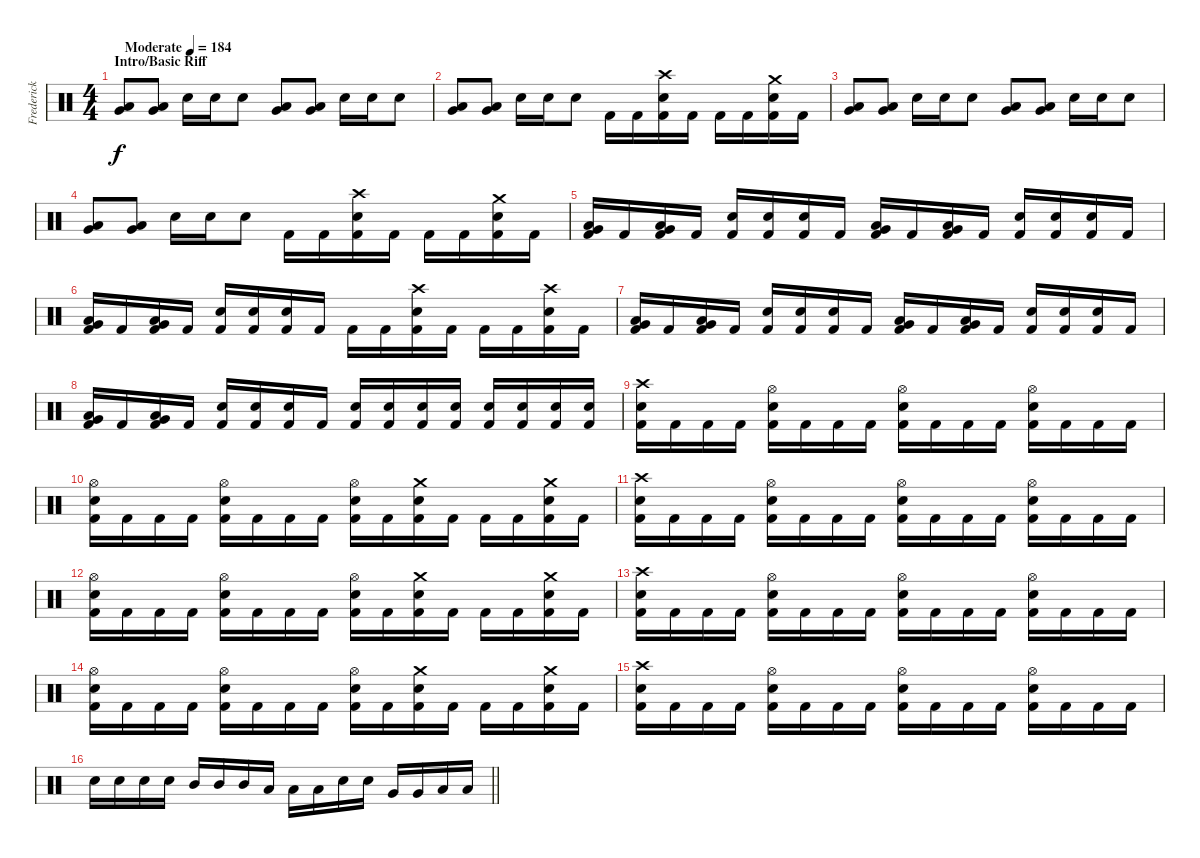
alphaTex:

\track ("Frederick Ehmke" "Frederick ") {instrument percussion}
\staff {score}
\articulation defaults
\ts (4 4)
\section ("" "Intro/Basic Riff")
\tempo (184 "Moderate")
\clef neutral
\ks c
("Low Floor Tom (hit)" "Very Low Tom (hit)").8{dy f} ("Low Floor Tom (hit)" "Very Low Tom (hit)").8 "Electric Snare (hit)".16 "Electric Snare (hit)".16 "Electric Snare (hit)".8 ("Low Floor Tom (hit)" "Very Low Tom (hit)").8 ("Low Floor Tom (hit)" "Very Low Tom (hit)").8 "Electric Snare (hit)".16 "Electric Snare (hit)".16 "Electric Snare (hit)".8 |
("Low Floor Tom (hit)" "Very Low Tom (hit)").8 ("Low Floor Tom (hit)" "Very Low Tom (hit)").8 "Electric Snare (hit)".16 "Electric Snare (hit)".16 "Electric Snare (hit)".8 "Kick (hit) 2".16 "Kick (hit) 2".16 ("Electric Snare (hit)" "Kick (hit) 2" "Crash high (hit)").16 "Kick (hit) 2".16 "Kick (hit) 2".16 "Kick (hit) 2".16 ("Electric Snare (hit)" "Kick (hit) 2" "Crash medium (hit)").16 "Kick (hit) 2".16 |
("Low Floor Tom (hit)" "Very Low Tom (hit)").8 ("Low Floor Tom (hit)" "Very Low Tom (hit)").8 "Electric Snare (hit)".16 "Electric Snare (hit)".16 "Electric Snare (hit)".8 ("Low Floor Tom (hit)" "Very Low Tom (hit)").8 ("Low Floor Tom (hit)" "Very Low Tom (hit)").8 "Electric Snare (hit)".16 "Electric Snare (hit)".16 "Electric Snare (hit)".8 |
("Low Floor Tom (hit)" "Very Low Tom (hit)").8 ("Low Floor Tom (hit)" "Very Low Tom (hit)").8 "Electric Snare (hit)".16 "Electric Snare (hit)".16 "Electric Snare (hit)".8 "Kick (hit) 2".16 "Kick (hit) 2".16 ("Electric Snare (hit)" "Kick (hit) 2" "Crash high (hit)").16 "Kick (hit) 2".16 "Kick (hit) 2".16 "Kick (hit) 2".16 ("Electric Snare (hit)" "Kick (hit) 2" "Crash medium (hit)").16 "Kick (hit) 2".16 |
("Kick (hit) 2" "Low Floor Tom (hit)" "Very Low Tom (hit)").16 "Kick (hit) 2".16 ("Kick (hit) 2" "Low Floor Tom (hit)" "Very Low Tom (hit)").16 "Kick (hit) 2".16 ("Electric Snare (hit)" "Kick (hit) 2").16 ("Electric Snare (hit)" "Kick (hit) 2").16 ("Electric Snare (hit)" "Kick (hit) 2").16 "Kick (hit) 2".16 ("Kick (hit) 2" "Low Floor Tom (hit)" "Very Low Tom (hit)").16 "Kick (hit) 2".16 ("Kick (hit) 2" "Low Floor Tom (hit)" "Very Low Tom (hit)").16 "Kick (hit) 2".16 ("Electric Snare (hit)" "Kick (hit) 2").16 ("Electric Snare (hit)" "Kick (hit) 2").16 ("Electric Snare (hit)" "Kick (hit) 2").16 "Kick (hit) 2".16 |
("Kick (hit) 2" "Low Floor Tom (hit)" "Very Low Tom (hit)").16 "Kick (hit) 2".16 ("Kick (hit) 2" "Low Floor Tom (hit)" "Very Low Tom (hit)").16 "Kick (hit) 2".16 ("Electric Snare (hit)" "Kick (hit) 2").16 ("Electric Snare (hit)" "Kick (hit) 2").16 ("Electric Snare (hit)" "Kick (hit) 2").16 "Kick (hit) 2".16 "Kick (hit) 2".16 "Kick (hit) 2".16 ("Electric Snare (hit)" "Kick (hit) 2" "Crash high (hit)").16 "Kick (hit) 2".16 "Kick (hit) 2".16 "Kick (hit) 2".16 ("Electric Snare (hit)" "Kick (hit) 2" "Crash high (hit)").16 "Kick (hit) 2".16 |
("Kick (hit) 2" "Low Floor Tom (hit)" "Very Low Tom (hit)").16 "Kick (hit) 2".16 ("Kick (hit) 2" "Low Floor Tom (hit)" "Very Low Tom (hit)").16 "Kick (hit) 2".16 ("Electric Snare (hit)" "Kick (hit) 2").16 ("Electric Snare (hit)" "Kick (hit) 2").16 ("Electric Snare (hit)" "Kick (hit) 2").16 "Kick (hit) 2".16 ("Kick (hit) 2" "Low Floor Tom (hit)" "Very Low Tom (hit)").16 "Kick (hit) 2".16 ("Kick (hit) 2" "Low Floor Tom (hit)" "Very Low Tom (hit)").16 "Kick (hit) 2".16 ("Electric Snare (hit)" "Kick (hit) 2").16 ("Electric Snare (hit)" "Kick (hit) 2").16 ("Electric Snare (hit)" "Kick (hit) 2").16 "Kick (hit) 2".16 |
("Kick (hit) 2" "Low Floor Tom (hit)" "Very Low Tom (hit)").16 "Kick (hit) 2".16 ("Kick (hit) 2" "Low Floor Tom (hit)" "Very Low Tom (hit)").16 "Kick (hit) 2".16 ("Electric Snare (hit)" "Kick (hit) 2").16 ("Electric Snare (hit)" "Kick (hit) 2").16 ("Electric Snare (hit)" "Kick (hit) 2").16 "Kick (hit) 2".16 ("Electric Snare (hit)" "Kick (hit) 2").16 ("Electric Snare (hit)" "Kick (hit) 2").16 ("Electric Snare (hit)" "Kick (hit) 2").16 ("Electric Snare (hit)" "Kick (hit) 2").16 ("Electric Snare (hit)" "Kick (hit) 2").16 ("Electric Snare (hit)" "Kick (hit) 2").16 ("Electric Snare (hit)" "Kick (hit) 2").16 ("Electric Snare (hit)" "Kick (hit) 2").16 |
("Electric Snare (hit)" "Kick (hit) 2" "Crash high (hit)").16 "Kick (hit) 2".16 "Kick (hit) 2".16 "Kick (hit) 2".16 ("Electric Snare (hit)" "Kick (hit) 2" "Hi-Hat (open)").16 "Kick (hit) 2".16 "Kick (hit) 2".16 "Kick (hit) 2".16 ("Electric Snare (hit)" "Kick (hit) 2" "Hi-Hat (open)").16 "Kick (hit) 2".16 "Kick (hit) 2".16 "Kick (hit) 2".16 ("Electric Snare (hit)" "Kick (hit) 2" "Hi-Hat (open)").16 "Kick (hit) 2".16 "Kick (hit) 2".16 "Kick (hit) 2".16 |
("Electric Snare (hit)" "Kick (hit) 2" "Hi-Hat (open)").16 "Kick (hit) 2".16 "Kick (hit) 2".16 "Kick (hit) 2".16 ("Electric Snare (hit)" "Kick (hit) 2" "Hi-Hat (open)").16 "Kick (hit) 2".16 "Kick (hit) 2".16 "Kick (hit) 2".16 ("Electric Snare (hit)" "Kick (hit) 2" "Hi-Hat (open)").16 "Kick (hit) 2".16 ("Electric Snare (hit)" "Kick (hit) 2" "Crash medium (hit)").16 "Kick (hit) 2".16 "Kick (hit) 2".16 "Kick (hit) 2".16 ("Electric Snare (hit)" "Kick (hit) 2" "Crash medium (hit)").16 "Kick (hit) 2".16 |
("Electric Snare (hit)" "Kick (hit) 2" "Crash high (hit)").16 "Kick (hit) 2".16 "Kick (hit) 2".16 "Kick (hit) 2".16 ("Electric Snare (hit)" "Kick (hit) 2" "Hi-Hat (open)").16 "Kick (hit) 2".16 "Kick (hit) 2".16 "Kick (hit) 2".16 ("Electric Snare (hit)" "Kick (hit) 2" "Hi-Hat (open)").16 "Kick (hit) 2".16 "Kick (hit) 2".16 "Kick (hit) 2".16 ("Electric Snare (hit)" "Kick (hit) 2" "Hi-Hat (open)").16 "Kick (hit) 2".16 "Kick (hit) 2".16 "Kick (hit) 2".16 |
("Electric Snare (hit)" "Kick (hit) 2" "Hi-Hat (open)").16 "Kick (hit) 2".16 "Kick (hit) 2".16 "Kick (hit) 2".16 ("Electric Snare (hit)" "Kick (hit) 2" "Hi-Hat (open)").16 "Kick (hit) 2".16 "Kick (hit) 2".16 "Kick (hit) 2".16 ("Electric Snare (hit)" "Kick (hit) 2" "Hi-Hat (open)").16 "Kick (hit) 2".16 ("Electric Snare (hit)" "Kick (hit) 2" "Crash medium (hit)").16 "Kick (hit) 2".16 "Kick (hit) 2".16 "Kick (hit) 2".16 ("Electric Snare (hit)" "Kick (hit) 2" "Crash medium (hit)").16 "Kick (hit) 2".16 |
("Electric Snare (hit)" "Kick (hit) 2" "Crash high (hit)").16 "Kick (hit) 2".16 "Kick (hit) 2".16 "Kick (hit) 2".16 ("Electric Snare (hit)" "Kick (hit) 2" "Hi-Hat (open)").16 "Kick (hit) 2".16 "Kick (hit) 2".16 "Kick (hit) 2".16 ("Electric Snare (hit)" "Kick (hit) 2" "Hi-Hat (open)").16 "Kick (hit) 2".16 "Kick (hit) 2".16 "Kick (hit) 2".16 ("Electric Snare (hit)" "Kick (hit) 2" "Hi-Hat (open)").16 "Kick (hit) 2".16 "Kick (hit) 2".16 "Kick (hit) 2".16 |
("Electric Snare (hit)" "Kick (hit) 2" "Hi-Hat (open)").16 "Kick (hit) 2".16 "Kick (hit) 2".16 "Kick (hit) 2".16 ("Electric Snare (hit)" "Kick (hit) 2" "Hi-Hat (open)").16 "Kick (hit) 2".16 "Kick (hit) 2".16 "Kick (hit) 2".16 ("Electric Snare (hit)" "Kick (hit) 2" "Hi-Hat (open)").16 "Kick (hit) 2".16 ("Electric Snare (hit)" "Kick (hit) 2" "Crash medium (hit)").16 "Kick (hit) 2".16 "Kick (hit) 2".16 "Kick (hit) 2".16 ("Electric Snare (hit)" "Kick (hit) 2" "Crash medium (hit)").16 "Kick (hit) 2".16 |
("Electric Snare (hit)" "Kick (hit) 2" "Crash high (hit)").16 "Kick (hit) 2".16 "Kick (hit) 2".16 "Kick (hit) 2".16 ("Electric Snare (hit)" "Kick (hit) 2" "Hi-Hat (open)").16 "Kick (hit) 2".16 "Kick (hit) 2".16 "Kick (hit) 2".16 ("Electric Snare (hit)" "Kick (hit) 2" "Hi-Hat (open)").16 "Kick (hit) 2".16 "Kick (hit) 2".16 "Kick (hit) 2".16 ("Electric Snare (hit)" "Kick (hit) 2" "Hi-Hat (open)").16 "Kick (hit) 2".16 "Kick (hit) 2".16 "Kick (hit) 2".16 |
\barLineRight lightlight "Electric Snare (hit)".16 "Electric Snare (hit)".16 "Electric Snare (hit)".16 "Electric Snare (hit)".16 "Mid Tom (hit)".16 "Mid Tom (hit)".16 "Mid Tom (hit)".16 "Low Tom (hit)".16 "Low Tom (hit)".16 "Low Tom (hit)".16 "Electric Snare (hit)".16 "Electric Snare (hit)".16 "Very Low Tom (hit)".16 "Very Low Tom (hit)".16 "Low Floor Tom (hit)".16 "Low Floor Tom (hit)".16
